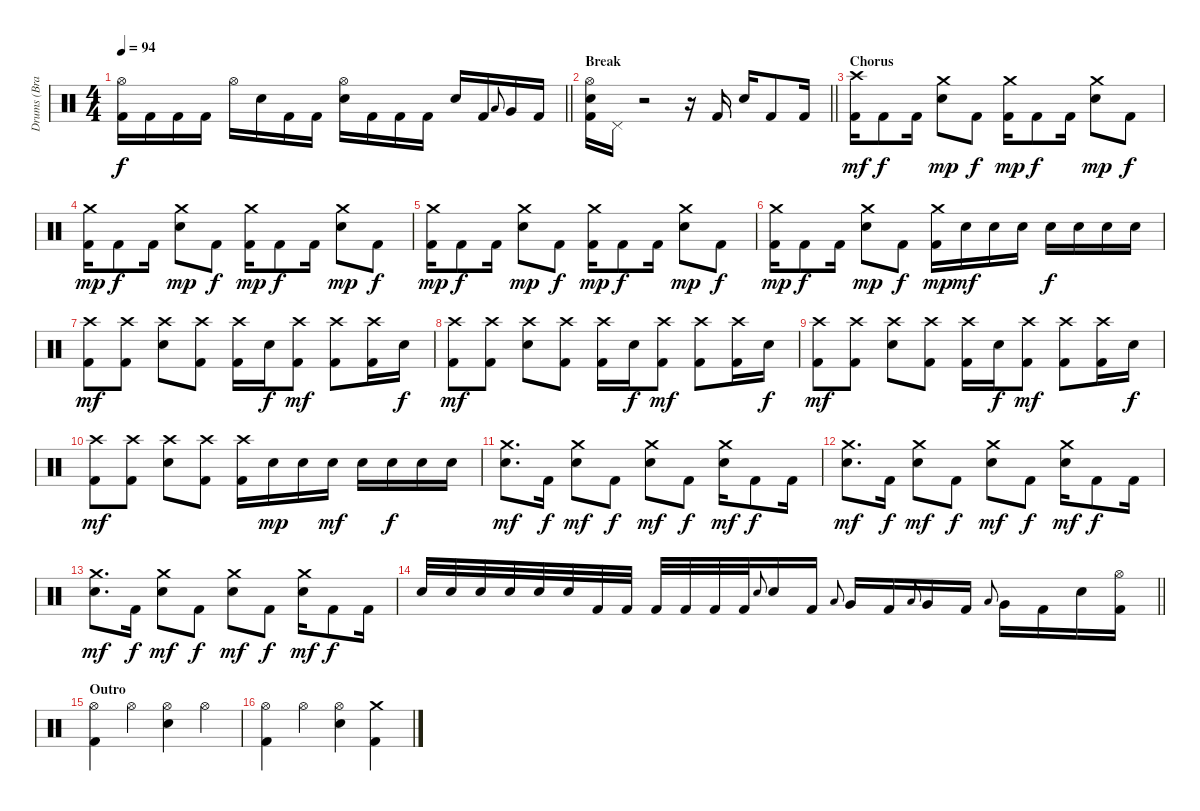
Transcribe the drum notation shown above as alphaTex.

\track ("Drums (Brandon Saller)" "Drums (Bra") {instrument percussion}
\staff {score}
\articulation defaults
\ts (4 4)
\tempo 94
\clef neutral
\barLineRight lightlight
\ks c
("Hi-Hat (open)" "Kick (hit) 2").16{dy f} "Kick (hit) 2".16 "Kick (hit) 2".16 "Kick (hit) 2".16 "Hi-Hat (open)".16 "Electric Snare (hit)".16 "Kick (hit) 2".16 "Kick (hit) 2".16 ("Hi-Hat (open)" "Electric Snare (hit)").16 "Kick (hit) 2".16 "Kick (hit) 2".16 "Kick (hit) 2".16 "Electric Snare (hit)".16 "Kick (hit) 2".16 "Low Tom (hit)"{h}.8{gr onbeat} "Very Low Tom (hit)".16 "Kick (hit) 2".16 |
\section ("" "Break")
\barLineRight lightlight
("Hi-Hat (open)" "Electric Snare (hit)" "Kick (hit) 2").16 "Pedal Hi-Hat (hit)".16 r.2 r.16 "Kick (hit) 2".16 "Electric Snare (hit)".16 "Kick (hit) 2".8 "Kick (hit) 2".16 |
\section ("" "Chorus")
("Crash high (hit)" "Kick (hit) 2").16{dy mf} "Kick (hit) 2".8{dy f} "Kick (hit) 2".16 ("Crash medium (hit)" "Electric Snare (hit)").8{dy mp} "Kick (hit) 2".8{dy f} ("Crash medium (hit)" "Kick (hit) 2").16{dy mp} "Kick (hit) 2".8{dy f} "Kick (hit) 2".16 ("Crash medium (hit)" "Electric Snare (hit)").8{dy mp} "Kick (hit) 2".8{dy f} |
("Crash medium (hit)" "Kick (hit) 2").16{dy mp} "Kick (hit) 2".8{dy f} "Kick (hit) 2".16 ("Crash medium (hit)" "Electric Snare (hit)").8{dy mp} "Kick (hit) 2".8{dy f} ("Crash medium (hit)" "Kick (hit) 2").16{dy mp} "Kick (hit) 2".8{dy f} "Kick (hit) 2".16 ("Crash medium (hit)" "Electric Snare (hit)").8{dy mp} "Kick (hit) 2".8{dy f} |
("Crash medium (hit)" "Kick (hit) 2").16{dy mp} "Kick (hit) 2".8{dy f} "Kick (hit) 2".16 ("Crash medium (hit)" "Electric Snare (hit)").8{dy mp} "Kick (hit) 2".8{dy f} ("Crash medium (hit)" "Kick (hit) 2").16{dy mp} "Kick (hit) 2".8{dy f} "Kick (hit) 2".16 ("Crash medium (hit)" "Electric Snare (hit)").8{dy mp} "Kick (hit) 2".8{dy f} |
("Crash medium (hit)" "Kick (hit) 2").16{dy mp} "Kick (hit) 2".8{dy f} "Kick (hit) 2".16 ("Crash medium (hit)" "Electric Snare (hit)").8{dy mp} "Kick (hit) 2".8{dy f} ("Crash medium (hit)" "Kick (hit) 2").16{dy mp} "Electric Snare (hit)".16{dy mf} "Electric Snare (hit)".16 "Electric Snare (hit)".16 "Electric Snare (hit)".16{dy f} "Electric Snare (hit)".16 "Electric Snare (hit)".16 "Electric Snare (hit)".16 |
("Crash high (hit)" "Kick (hit) 2").8{dy mf} ("Crash high (hit)" "Kick (hit) 2").8 ("Crash high (hit)" "Electric Snare (hit)").8 ("Crash high (hit)" "Kick (hit) 2").8 ("Crash high (hit)" "Kick (hit) 2").16 "Electric Snare (hit)".16{dy f} ("Crash high (hit)" "Kick (hit) 2").8{dy mf} ("Crash high (hit)" "Kick (hit) 2").8 ("Crash high (hit)" "Kick (hit) 2").16 "Electric Snare (hit)".16{dy f} |
("Crash high (hit)" "Kick (hit) 2").8{dy mf} ("Crash high (hit)" "Kick (hit) 2").8 ("Crash high (hit)" "Electric Snare (hit)").8 ("Crash high (hit)" "Kick (hit) 2").8 ("Crash high (hit)" "Kick (hit) 2").16 "Electric Snare (hit)".16{dy f} ("Crash high (hit)" "Kick (hit) 2").8{dy mf} ("Crash high (hit)" "Kick (hit) 2").8 ("Crash high (hit)" "Kick (hit) 2").16 "Electric Snare (hit)".16{dy f} |
("Crash high (hit)" "Kick (hit) 2").8{dy mf} ("Crash high (hit)" "Kick (hit) 2").8 ("Crash high (hit)" "Electric Snare (hit)").8 ("Crash high (hit)" "Kick (hit) 2").8 ("Crash high (hit)" "Kick (hit) 2").16 "Electric Snare (hit)".16{dy f} ("Crash high (hit)" "Kick (hit) 2").8{dy mf} ("Crash high (hit)" "Kick (hit) 2").8 ("Crash high (hit)" "Kick (hit) 2").16 "Electric Snare (hit)".16{dy f} |
("Crash high (hit)" "Kick (hit) 2").8{dy mf} ("Crash high (hit)" "Kick (hit) 2").8 ("Crash high (hit)" "Electric Snare (hit)").8 ("Crash high (hit)" "Kick (hit) 2").8 ("Crash high (hit)" "Kick (hit) 2").16 "Electric Snare (hit)".16{dy mp} "Electric Snare (hit)".16 "Electric Snare (hit)".16{dy mf} "Electric Snare (hit)".16 "Electric Snare (hit)".16{dy f} "Electric Snare (hit)".16 "Electric Snare (hit)".16 |
("Crash medium (hit)" "Electric Snare (hit)").8{d dy mf} "Kick (hit) 2".16{dy f} ("Crash medium (hit)" "Electric Snare (hit)").8{dy mf} "Kick (hit) 2".8{dy f} ("Crash medium (hit)" "Electric Snare (hit)").8{dy mf} "Kick (hit) 2".8{dy f} ("Crash medium (hit)" "Electric Snare (hit)").16{dy mf} "Kick (hit) 2".8{dy f} "Kick (hit) 2".16 |
("Crash medium (hit)" "Electric Snare (hit)").8{d dy mf} "Kick (hit) 2".16{dy f} ("Crash medium (hit)" "Electric Snare (hit)").8{dy mf} "Kick (hit) 2".8{dy f} ("Crash medium (hit)" "Electric Snare (hit)").8{dy mf} "Kick (hit) 2".8{dy f} ("Crash medium (hit)" "Electric Snare (hit)").16{dy mf} "Kick (hit) 2".8{dy f} "Kick (hit) 2".16 |
("Crash medium (hit)" "Electric Snare (hit)").8{d dy mf} "Kick (hit) 2".16{dy f} ("Crash medium (hit)" "Electric Snare (hit)").8{dy mf} "Kick (hit) 2".8{dy f} ("Crash medium (hit)" "Electric Snare (hit)").8{dy mf} "Kick (hit) 2".8{dy f} ("Crash medium (hit)" "Electric Snare (hit)").16{dy mf} "Kick (hit) 2".8{dy f} "Kick (hit) 2".16 |
\barLineRight lightlight "Electric Snare (hit)".32 "Electric Snare (hit)".32 "Electric Snare (hit)".32 "Electric Snare (hit)".32 "Electric Snare (hit)".32 "Electric Snare (hit)".32 "Kick (hit) 2".32 "Kick (hit) 2".32 "Kick (hit) 2".32 "Kick (hit) 2".32 "Kick (hit) 2".32 "Kick (hit) 2".32 "Electric Snare (hit)"{h}.8{gr onbeat} "Electric Snare (hit)".16 "Kick (hit) 2".16 "Low Tom (hit)"{h}.8{gr onbeat} "Very Low Tom (hit)".16 "Kick (hit) 2".16 "Low Tom (hit)"{h}.8{gr onbeat} "Very Low Tom (hit)".16 "Kick (hit) 2".16 "Low Tom (hit)"{h}.8{gr onbeat} "Very Low Tom (hit)".16 "Kick (hit) 2".16 "Electric Snare (hit)".16
("Hi-Hat (open)" "Kick (hit) 2").16 |
\section ("" "Outro")
("Hi-Hat (open)" "Kick (hit) 2").4 "Hi-Hat (open)".4 ("Hi-Hat (open)" "Electric Snare (hit)").4 "Hi-Hat (open)".4 |
("Hi-Hat (open)" "Kick (hit) 2").4 "Hi-Hat (open)".4 ("Hi-Hat (open)" "Electric Snare (hit)").4 ("Crash medium (hit)" "Kick (hit) 2").4
